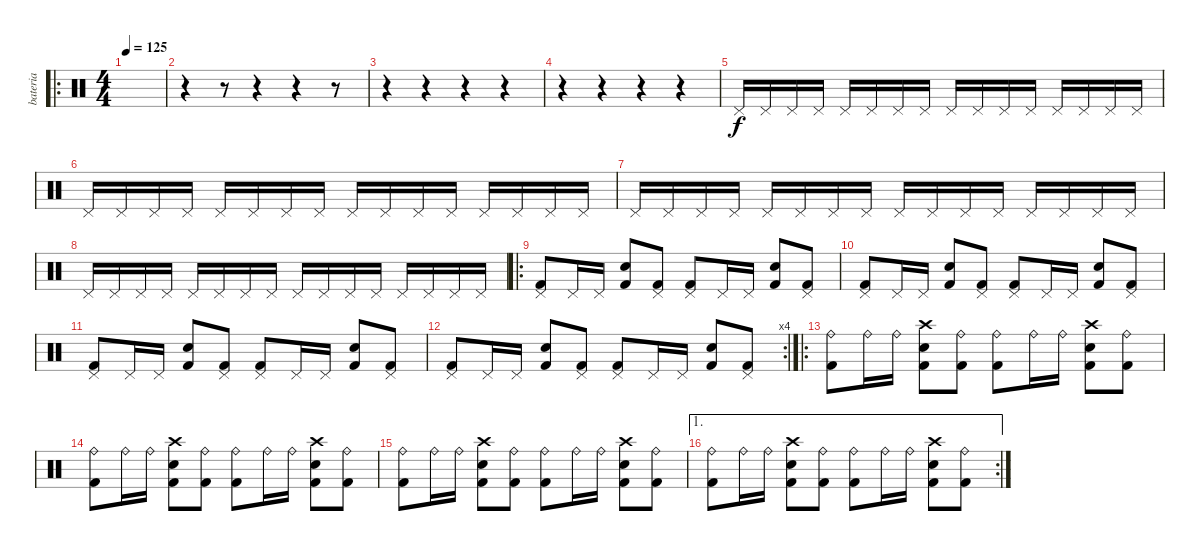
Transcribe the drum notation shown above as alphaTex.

\track ("bateria" "bateria") {instrument percussion}
\staff {score}
\articulation defaults
\ro
\ts (4 4)
\tempo 125
\clef neutral
\ks c
|
r.4 r.8 r.4 r.4 r.8 |
r.4 r.4 r.4 r.4 |
r.4 r.4 r.4 r.4 |
"Pedal Hi-Hat (hit)".16 "Pedal Hi-Hat (hit)".16 "Pedal Hi-Hat (hit)".16 "Pedal Hi-Hat (hit)".16 "Pedal Hi-Hat (hit)".16 "Pedal Hi-Hat (hit)".16 "Pedal Hi-Hat (hit)".16 "Pedal Hi-Hat (hit)".16 "Pedal Hi-Hat (hit)".16 "Pedal Hi-Hat (hit)".16 "Pedal Hi-Hat (hit)".16 "Pedal Hi-Hat (hit)".16 "Pedal Hi-Hat (hit)".16 "Pedal Hi-Hat (hit)".16 "Pedal Hi-Hat (hit)".16 "Pedal Hi-Hat (hit)".16 |
"Pedal Hi-Hat (hit)".16 "Pedal Hi-Hat (hit)".16 "Pedal Hi-Hat (hit)".16 "Pedal Hi-Hat (hit)".16 "Pedal Hi-Hat (hit)".16 "Pedal Hi-Hat (hit)".16 "Pedal Hi-Hat (hit)".16 "Pedal Hi-Hat (hit)".16 "Pedal Hi-Hat (hit)".16 "Pedal Hi-Hat (hit)".16 "Pedal Hi-Hat (hit)".16 "Pedal Hi-Hat (hit)".16 "Pedal Hi-Hat (hit)".16 "Pedal Hi-Hat (hit)".16 "Pedal Hi-Hat (hit)".16 "Pedal Hi-Hat (hit)".16 |
"Pedal Hi-Hat (hit)".16 "Pedal Hi-Hat (hit)".16 "Pedal Hi-Hat (hit)".16 "Pedal Hi-Hat (hit)".16 "Pedal Hi-Hat (hit)".16 "Pedal Hi-Hat (hit)".16 "Pedal Hi-Hat (hit)".16 "Pedal Hi-Hat (hit)".16 "Pedal Hi-Hat (hit)".16 "Pedal Hi-Hat (hit)".16 "Pedal Hi-Hat (hit)".16 "Pedal Hi-Hat (hit)".16 "Pedal Hi-Hat (hit)".16 "Pedal Hi-Hat (hit)".16 "Pedal Hi-Hat (hit)".16 "Pedal Hi-Hat (hit)".16 |
"Pedal Hi-Hat (hit)".16 "Pedal Hi-Hat (hit)".16 "Pedal Hi-Hat (hit)".16 "Pedal Hi-Hat (hit)".16 "Pedal Hi-Hat (hit)".16 "Pedal Hi-Hat (hit)".16 "Pedal Hi-Hat (hit)".16 "Pedal Hi-Hat (hit)".16 "Pedal Hi-Hat (hit)".16 "Pedal Hi-Hat (hit)".16 "Pedal Hi-Hat (hit)".16 "Pedal Hi-Hat (hit)".16 "Pedal Hi-Hat (hit)".16 "Pedal Hi-Hat (hit)".16 "Pedal Hi-Hat (hit)".16 "Pedal Hi-Hat (hit)".16 |
\ro
("Pedal Hi-Hat (hit)" "Kick (hit) 2").8 "Pedal Hi-Hat (hit)".16 "Pedal Hi-Hat (hit)".16 ("Snare (hit) 2" "Kick (hit) 2").8 ("Pedal Hi-Hat (hit)" "Kick (hit) 2").8 ("Pedal Hi-Hat (hit)" "Kick (hit) 2").8 "Pedal Hi-Hat (hit)".16 "Pedal Hi-Hat (hit)".16 ("Snare (hit) 2" "Kick (hit) 2").8 ("Pedal Hi-Hat (hit)" "Kick (hit) 2").8 |
("Pedal Hi-Hat (hit)" "Kick (hit) 2").8 "Pedal Hi-Hat (hit)".16 "Pedal Hi-Hat (hit)".16 ("Snare (hit) 2" "Kick (hit) 2").8 ("Pedal Hi-Hat (hit)" "Kick (hit) 2").8 ("Pedal Hi-Hat (hit)" "Kick (hit) 2").8 "Pedal Hi-Hat (hit)".16 "Pedal Hi-Hat (hit)".16 ("Snare (hit) 2" "Kick (hit) 2").8 ("Pedal Hi-Hat (hit)" "Kick (hit) 2").8 |
("Pedal Hi-Hat (hit)" "Kick (hit) 2").8 "Pedal Hi-Hat (hit)".16 "Pedal Hi-Hat (hit)".16 ("Snare (hit) 2" "Kick (hit) 2").8 ("Pedal Hi-Hat (hit)" "Kick (hit) 2").8 ("Pedal Hi-Hat (hit)" "Kick (hit) 2").8 "Pedal Hi-Hat (hit)".16 "Pedal Hi-Hat (hit)".16 ("Snare (hit) 2" "Kick (hit) 2").8 ("Pedal Hi-Hat (hit)" "Kick (hit) 2").8 |
\rc 4
("Pedal Hi-Hat (hit)" "Kick (hit) 2").8 "Pedal Hi-Hat (hit)".16 "Pedal Hi-Hat (hit)".16 ("Snare (hit) 2" "Kick (hit) 2").8 ("Pedal Hi-Hat (hit)" "Kick (hit) 2").8 ("Pedal Hi-Hat (hit)" "Kick (hit) 2").8 "Pedal Hi-Hat (hit)".16 "Pedal Hi-Hat (hit)".16 ("Snare (hit) 2" "Kick (hit) 2").8 ("Pedal Hi-Hat (hit)" "Kick (hit) 2").8 |
\ro
("Ride (bell)" "Kick (hit) 2").8 "Ride (bell)".16 "Ride (bell)".16 ("Snare (hit) 2" "Crash high (hit)" "Kick (hit) 2").8 ("Ride (bell)" "Kick (hit) 2").8 ("Ride (bell)" "Kick (hit) 2").8 "Ride (bell)".16 "Ride (bell)".16 ("Snare (hit) 2" "Crash high (hit)" "Kick (hit) 2").8 ("Ride (bell)" "Kick (hit) 2").8 |
("Ride (bell)" "Kick (hit) 2").8 "Ride (bell)".16 "Ride (bell)".16 ("Snare (hit) 2" "Crash high (hit)" "Kick (hit) 2").8 ("Ride (bell)" "Kick (hit) 2").8 ("Ride (bell)" "Kick (hit) 2").8 "Ride (bell)".16 "Ride (bell)".16 ("Snare (hit) 2" "Crash high (hit)" "Kick (hit) 2").8 ("Ride (bell)" "Kick (hit) 2").8 |
("Ride (bell)" "Kick (hit) 2").8 "Ride (bell)".16 "Ride (bell)".16 ("Snare (hit) 2" "Crash high (hit)" "Kick (hit) 2").8 ("Ride (bell)" "Kick (hit) 2").8 ("Ride (bell)" "Kick (hit) 2").8 "Ride (bell)".16 "Ride (bell)".16 ("Snare (hit) 2" "Crash high (hit)" "Kick (hit) 2").8 ("Ride (bell)" "Kick (hit) 2").8 |
\ae 1
\rc 2
("Ride (bell)" "Kick (hit) 2").8 "Ride (bell)".16 "Ride (bell)".16 ("Snare (hit) 2" "Crash high (hit)" "Kick (hit) 2").8 ("Ride (bell)" "Kick (hit) 2").8 ("Ride (bell)" "Kick (hit) 2").8 "Ride (bell)".16 "Ride (bell)".16 ("Snare (hit) 2" "Crash high (hit)" "Kick (hit) 2").8 ("Ride (bell)" "Kick (hit) 2").8
